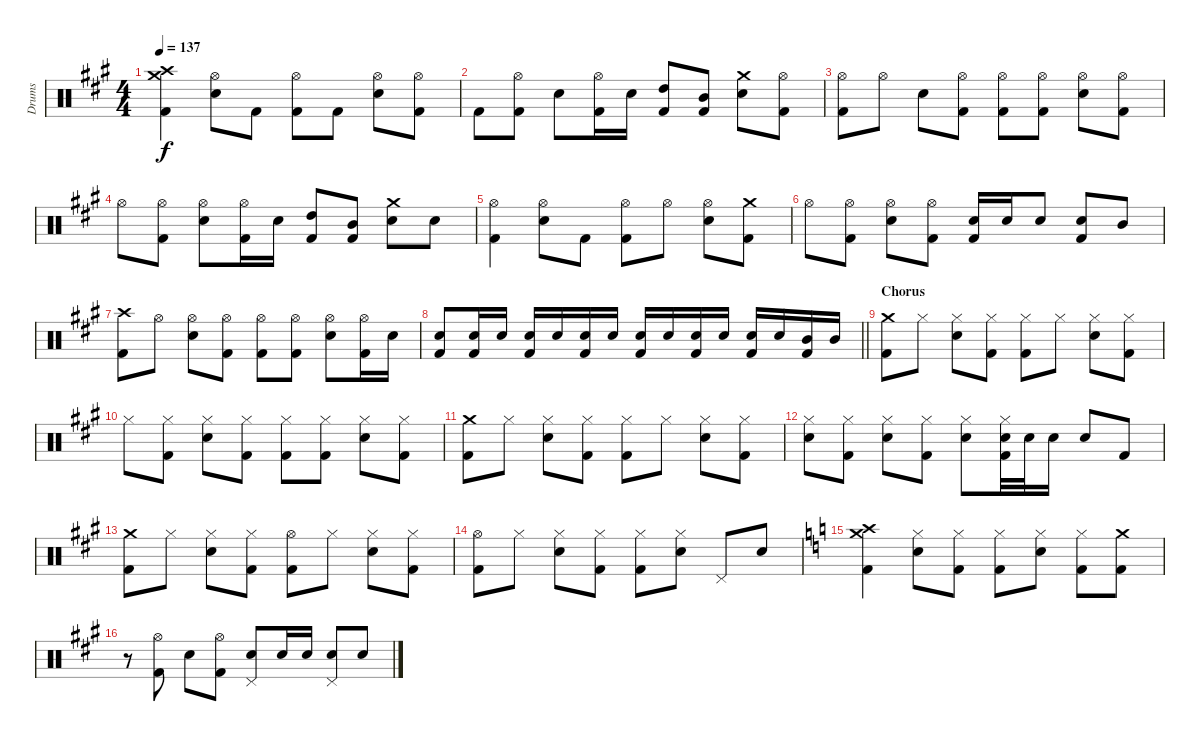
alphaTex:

\track ("Drums" "Drums") {instrument percussion}
\staff {score}
\articulation defaults
\ts (4 4)
\tempo 137
\clef neutral
\ks a
("Crash high (hit)" "Crash medium (hit)" "Kick (hit) 2").4{dy f} ("Hi-Hat (open)" "Snare (hit) 2").8 "Kick (hit) 2".8 ("Hi-Hat (open)" "Kick (hit) 2").8 "Kick (hit) 2".8 ("Hi-Hat (open)" "Snare (hit) 2").8 ("Hi-Hat (open)" "Kick (hit) 2").8 |
"Kick (hit) 2".8 ("Hi-Hat (open)" "Kick (hit) 2").8 "Snare (hit) 2".8 ("Hi-Hat (open)" "Kick (hit) 2").16 "Snare (hit) 2".16 ("High Tom (hit)" "Kick (hit) 2").8 ("Mid Tom (hit)" "Kick (hit) 2").8 ("Crash medium (hit)" "Snare (hit) 2").8 ("Hi-Hat (open)" "Kick (hit) 2").8 |
("Hi-Hat (open)" "Kick (hit) 2").8 "Hi-Hat (open)".8 "Snare (hit) 2".8 ("Hi-Hat (open)" "Kick (hit) 2").8 ("Hi-Hat (open)" "Kick (hit) 2").8 ("Hi-Hat (open)" "Kick (hit) 2").8 ("Hi-Hat (open)" "Snare (hit) 2").8 ("Hi-Hat (open)" "Kick (hit) 2").8 |
"Hi-Hat (open)".8 ("Hi-Hat (open)" "Kick (hit) 2").8 ("Hi-Hat (open)" "Snare (hit) 2").8 ("Hi-Hat (open)" "Kick (hit) 2").16 "Snare (hit) 2".16 ("High Tom (hit)" "Kick (hit) 2").8 ("Mid Tom (hit)" "Kick (hit) 2").8 ("Crash medium (hit)" "Snare (hit) 2").8 "Snare (hit) 2".8 |
("Hi-Hat (open)" "Kick (hit) 2").4 ("Hi-Hat (open)" "Snare (hit) 2").8 "Kick (hit) 2".8 ("Hi-Hat (open)" "Kick (hit) 2").8 "Hi-Hat (open)".8 ("Hi-Hat (open)" "Snare (hit) 2").8 ("Crash medium (hit)" "Kick (hit) 2").8 |
"Hi-Hat (open)".8 ("Hi-Hat (open)" "Kick (hit) 2").8 ("Hi-Hat (open)" "Snare (hit) 2").8 ("Hi-Hat (open)" "Kick (hit) 2").8 ("Snare (hit) 2" "Kick (hit) 2").16 "Snare (hit) 2".16 "Snare (hit) 2".8 ("Snare (hit) 2" "Kick (hit) 2").8 "Mid Tom (hit)".8 |
("Crash high (hit)" "Kick (hit) 2").8 "Hi-Hat (open)".8 ("Hi-Hat (open)" "Snare (hit) 2").8 ("Hi-Hat (open)" "Kick (hit) 2").8 ("Hi-Hat (open)" "Kick (hit) 2").8 ("Hi-Hat (open)" "Kick (hit) 2").8 ("Hi-Hat (open)" "Snare (hit) 2").8 ("Hi-Hat (open)" "Kick (hit) 2").16 "Snare (hit) 2".16 |
\barLineRight lightlight
("Snare (hit) 2" "Kick (hit) 2").8 ("Snare (hit) 2" "Kick (hit) 2").16 "Snare (hit) 2".16 ("Snare (hit) 2" "Kick (hit) 2").16 "Snare (hit) 2".16 ("Snare (hit) 2" "Kick (hit) 2").16 "Snare (hit) 2".16 ("Snare (hit) 2" "Kick (hit) 2").16 "Snare (hit) 2".16 ("Snare (hit) 2" "Kick (hit) 2").16 "Snare (hit) 2".16 ("Snare (hit) 2" "Kick (hit) 2").16 "Snare (hit) 2".16 ("Mid Tom (hit)" "Kick (hit) 2").16 "Mid Tom (hit)".16 |
\section ("" "Chorus")
("Crash medium (hit)" "Kick (hit) 2").8 "Hi-Hat (closed)".8 ("Hi-Hat (closed)" "Snare (hit) 2").8 ("Hi-Hat (closed)" "Kick (hit) 2").8 ("Hi-Hat (closed)" "Kick (hit) 2").8 "Hi-Hat (closed)".8 ("Hi-Hat (closed)" "Snare (hit) 2").8 ("Hi-Hat (closed)" "Kick (hit) 2").8 |
"Hi-Hat (closed)".8 ("Hi-Hat (closed)" "Kick (hit) 2").8 ("Hi-Hat (closed)" "Snare (hit) 2").8 ("Hi-Hat (closed)" "Kick (hit) 2").8 ("Hi-Hat (closed)" "Kick (hit) 2").8 ("Hi-Hat (closed)" "Kick (hit) 2").8 ("Hi-Hat (closed)" "Snare (hit) 2").8 ("Hi-Hat (closed)" "Kick (hit) 2").8 |
("Crash medium (hit)" "Kick (hit) 2").8 "Hi-Hat (closed)".8 ("Hi-Hat (closed)" "Snare (hit) 2").8 ("Hi-Hat (closed)" "Kick (hit) 2").8 ("Hi-Hat (closed)" "Kick (hit) 2").8 "Hi-Hat (closed)".8 ("Hi-Hat (closed)" "Snare (hit) 2").8 ("Hi-Hat (closed)" "Kick (hit) 2").8 |
("Hi-Hat (closed)" "Snare (hit) 2").8 ("Hi-Hat (closed)" "Kick (hit) 2").8 ("Hi-Hat (closed)" "Snare (hit) 2").8 ("Hi-Hat (closed)" "Kick (hit) 2").8 ("Hi-Hat (closed)" "Snare (hit) 2").8 ("Hi-Hat (closed)" "Snare (hit) 2" "Kick (hit) 2").32 "Snare (hit) 2".32 "Snare (hit) 2".16 "Snare (hit) 2".8 "Kick (hit) 2".8 |
("Crash medium (hit)" "Kick (hit) 2").8 "Hi-Hat (closed)".8 ("Hi-Hat (closed)" "Snare (hit) 2").8 ("Hi-Hat (closed)" "Kick (hit) 2").8 ("Hi-Hat (open)" "Kick (hit) 2").8 "Hi-Hat (closed)".8 ("Hi-Hat (closed)" "Snare (hit) 2").8 ("Hi-Hat (closed)" "Kick (hit) 2").8 |
("Hi-Hat (open)" "Kick (hit) 2").8 "Hi-Hat (closed)".8 ("Hi-Hat (closed)" "Snare (hit) 2").8 ("Hi-Hat (closed)" "Kick (hit) 2").8 ("Hi-Hat (closed)" "Kick (hit) 2").8 ("Hi-Hat (closed)" "Snare (hit) 2").8 "Pedal Hi-Hat (hit)".8 "Snare (hit) 2".8 |
\ks c
("Crash high (hit)" "Crash medium (hit)" "Kick (hit) 2").4 ("Hi-Hat (closed)" "Snare (hit) 2").8 ("Hi-Hat (closed)" "Kick (hit) 2").8 ("Hi-Hat (closed)" "Kick (hit) 2").8 ("Hi-Hat (closed)" "Snare (hit) 2").8 ("Hi-Hat (closed)" "Kick (hit) 2").8 ("Crash medium (hit)" "Kick (hit) 2").8 |
\ks a
r.8 ("Hi-Hat (open)" "Kick (hit) 2").8 "Snare (hit) 2".8 ("Hi-Hat (open)" "Kick (hit) 2").8 ("Snare (hit) 2" "Pedal Hi-Hat (hit)").8 "Snare (hit) 2".16 "Snare (hit) 2".16 ("Snare (hit) 2" "Pedal Hi-Hat (hit)").8 "Snare (hit) 2".8
